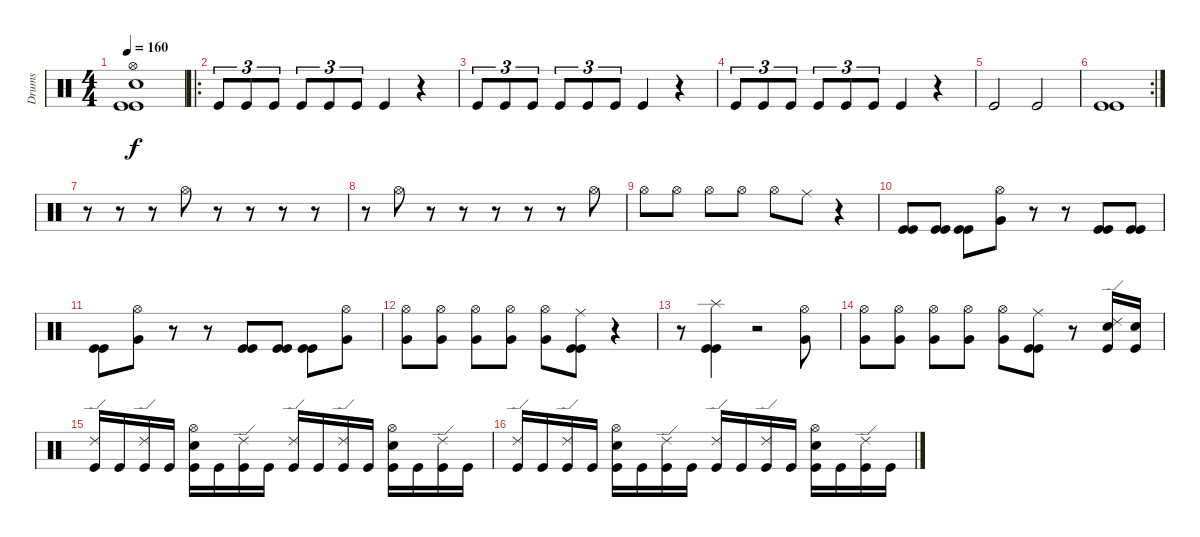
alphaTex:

\track ("Drums" "Drums") {instrument percussion}
\staff {score}
\articulation defaults
\ts (4 4)
\tempo 160
\clef neutral
\ks c
("Hi-Hat (open)" "Snare (hit) 2" "Kick (hit)" "Kick (hit)").1{dy f} |
\ro "Kick (hit)".8{tu (3 2)} "Kick (hit)".8{tu (3 2)} "Kick (hit)".8{tu (3 2)} "Kick (hit)".8{tu (3 2)} "Kick (hit)".8{tu (3 2)} "Kick (hit)".8{tu (3 2)} "Kick (hit)".4
r.4 |
"Kick (hit)".8{tu (3 2)} "Kick (hit)".8{tu (3 2)} "Kick (hit)".8{tu (3 2)} "Kick (hit)".8{tu (3 2)} "Kick (hit)".8{tu (3 2)} "Kick (hit)".8{tu (3 2)} "Kick (hit)".4 r.4 |
"Kick (hit)".8{tu (3 2)} "Kick (hit)".8{tu (3 2)} "Kick (hit)".8{tu (3 2)} "Kick (hit)".8{tu (3 2)} "Kick (hit)".8{tu (3 2)} "Kick (hit)".8{tu (3 2)} "Kick (hit)".4 r.4 |
"Kick (hit)".2 "Kick (hit)".2 |
\rc 2
("Kick (hit)" "Kick (hit)").1 |
r.8 r.8 r.8 "Hi-Hat (open)".8 r.8 r.8 r.8 r.8 |
r.8 "Hi-Hat (open)".8 r.8 r.8 r.8 r.8 r.8 "Hi-Hat (open)".8 |
"Hi-Hat (open)".8 "Hi-Hat (open)".8 "Hi-Hat (open)".8 "Hi-Hat (open)".8 "Hi-Hat (open)".8 "Ride (middle)".8 r.4 |
("Kick (hit)" "Kick (hit)").8 ("Kick (hit)" "Kick (hit)").8 ("Kick (hit)" "Kick (hit)").8 ("Hi-Hat (open)" "Very Low Tom (hit)").8 r.8 r.8 ("Kick (hit)" "Kick (hit)").8 ("Kick (hit)" "Kick (hit)").8 |
("Kick (hit)" "Kick (hit)").8 ("Hi-Hat (open)" "Very Low Tom (hit)").8 r.8 r.8 ("Kick (hit)" "Kick (hit)").8 ("Kick (hit)" "Kick (hit)").8 ("Kick (hit)" "Kick (hit)").8 ("Hi-Hat (open)" "Very Low Tom (hit)").8 |
("Hi-Hat (open)" "Very Low Tom (hit)").8 ("Hi-Hat (open)" "Very Low Tom (hit)").8 ("Hi-Hat (open)" "Very Low Tom (hit)").8 ("Hi-Hat (open)" "Very Low Tom (hit)").8 ("Hi-Hat (open)" "Very Low Tom (hit)").8 ("Ride (middle)" "Kick (hit)" "Kick (hit)").8 r.4 |
r.8 ("Splash (hit)" "Kick (hit)" "Kick (hit)").4 r.2 ("Hi-Hat (open)" "Very Low Tom (hit)").8 |
("Hi-Hat (open)" "Very Low Tom (hit)").8 ("Hi-Hat (open)" "Very Low Tom (hit)").8 ("Hi-Hat (open)" "Very Low Tom (hit)").8 ("Hi-Hat (open)" "Very Low Tom (hit)").8 ("Hi-Hat (open)" "Very Low Tom (hit)").8 ("Ride (middle)" "Kick (hit)" "Kick (hit)").8 r.8 ("Ride (edge) 2" "Snare (hit) 2" "Kick (hit)").16 ("Snare (hit) 2" "Kick (hit)").16 |
("Ride (edge) 2" "Kick (hit)").16 "Kick (hit)".16 ("Ride (edge) 2" "Kick (hit)").16 "Kick (hit)".16 ("Hi-Hat (open)" "Snare (hit) 2" "Kick (hit)").16 "Kick (hit)".16 ("Ride (edge) 2" "Kick (hit)").16 "Kick (hit)".16 ("Ride (edge) 2" "Kick (hit)").16 "Kick (hit)".16 ("Ride (edge) 2" "Kick (hit)").16 "Kick (hit)".16 ("Hi-Hat (open)" "Snare (hit) 2" "Kick (hit)").16 "Kick (hit)".16 ("Ride (edge) 2" "Kick (hit)").16 "Kick (hit)".16 |
("Ride (edge) 2" "Kick (hit)").16 "Kick (hit)".16 ("Ride (edge) 2" "Kick (hit)").16 "Kick (hit)".16 ("Hi-Hat (open)" "Snare (hit) 2" "Kick (hit)").16 "Kick (hit)".16 ("Ride (edge) 2" "Kick (hit)").16 "Kick (hit)".16 ("Ride (edge) 2" "Kick (hit)").16 "Kick (hit)".16 ("Ride (edge) 2" "Kick (hit)").16 "Kick (hit)".16 ("Hi-Hat (open)" "Snare (hit) 2" "Kick (hit)").16 "Kick (hit)".16 ("Ride (edge) 2" "Kick (hit)").16 "Kick (hit)".16
